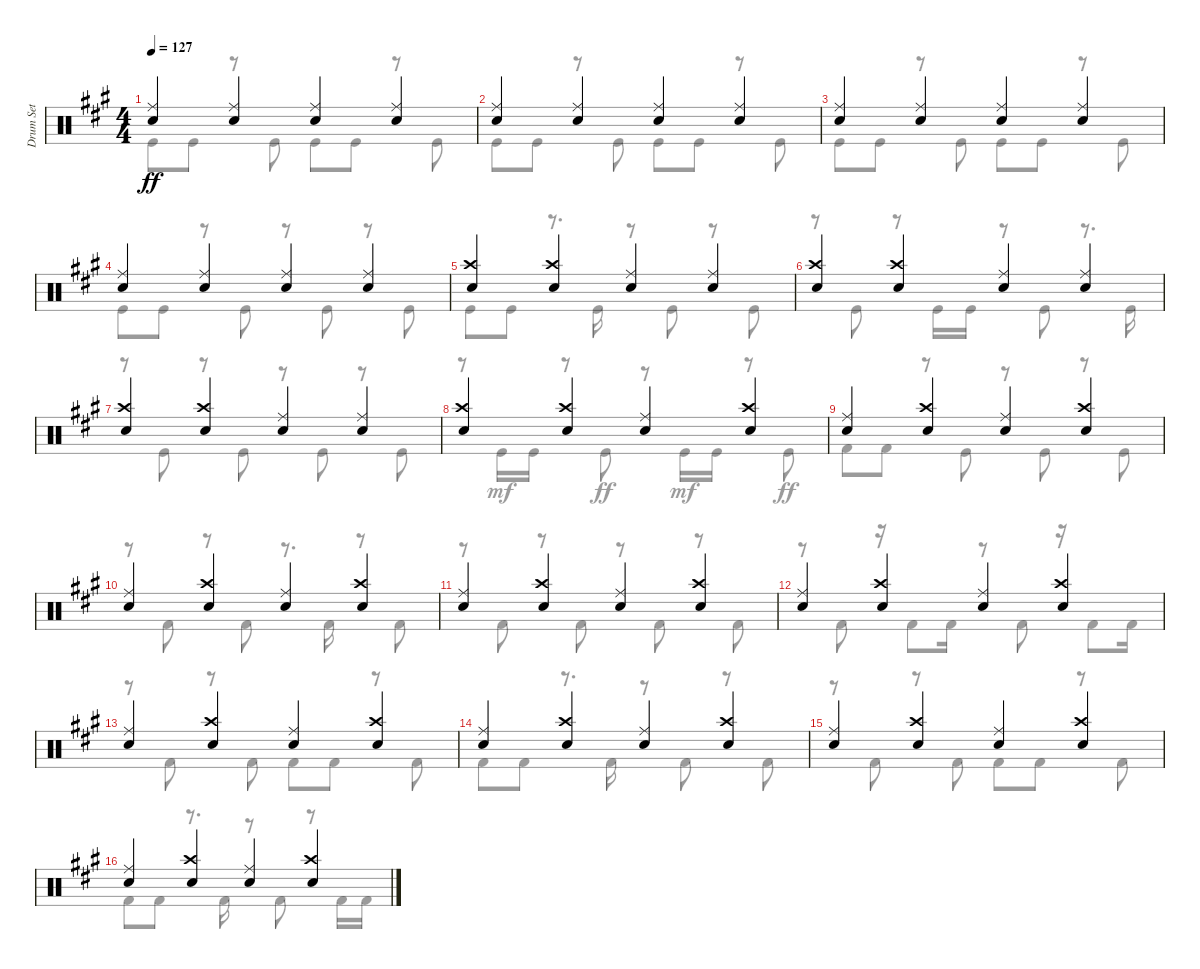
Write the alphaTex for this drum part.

\track ("Drum Set" "Drum Set") {instrument percussion}
\staff {score}
\articulation defaults
\voice
\ts (4 4)
\tempo 127
\clef neutral
\ks a
("Ride (middle)" "Electric Snare (hit)").4{dy ff} ("Ride (middle)" "Electric Snare (hit)").4 ("Ride (middle)" "Electric Snare (hit)").4 ("Ride (middle)" "Electric Snare (hit)").4 |
("Ride (middle)" "Electric Snare (hit)").4 ("Ride (middle)" "Electric Snare (hit)").4 ("Ride (middle)" "Electric Snare (hit)").4 ("Ride (middle)" "Electric Snare (hit)").4 |
("Ride (middle)" "Electric Snare (hit)").4 ("Ride (middle)" "Electric Snare (hit)").4 ("Ride (middle)" "Electric Snare (hit)").4 ("Ride (middle)" "Electric Snare (hit)").4 |
("Ride (middle)" "Electric Snare (hit)").4 ("Ride (middle)" "Electric Snare (hit)").4 ("Ride (middle)" "Electric Snare (hit)").4 ("Ride (middle)" "Electric Snare (hit)").4 |
("Crash high (hit)" "Electric Snare (hit)").4 ("Crash high (hit)" "Electric Snare (hit)").4 ("Ride (middle)" "Electric Snare (hit)").4 ("Ride (middle)" "Electric Snare (hit)").4 |
("Crash high (hit)" "Electric Snare (hit)").4{volume 9} ("Crash high (hit)" "Electric Snare (hit)").4 ("Ride (middle)" "Electric Snare (hit)").4 ("Ride (middle)" "Electric Snare (hit)").4 |
("Crash high (hit)" "Electric Snare (hit)").4 ("Crash high (hit)" "Electric Snare (hit)").4 ("Ride (middle)" "Electric Snare (hit)").4 ("Ride (middle)" "Electric Snare (hit)").4 |
("Crash high (hit)" "Electric Snare (hit)").4 ("Crash high (hit)" "Electric Snare (hit)").4 ("Ride (middle)" "Electric Snare (hit)").4 ("Crash high (hit)" "Electric Snare (hit)").4 |
("Ride (middle)" "Electric Snare (hit)").4 ("Crash high (hit)" "Electric Snare (hit)").4 ("Ride (middle)" "Electric Snare (hit)").4 ("Crash high (hit)" "Electric Snare (hit)").4 |
("Ride (middle)" "Electric Snare (hit)").4{volume 6} ("Crash high (hit)" "Electric Snare (hit)").4 ("Ride (middle)" "Electric Snare (hit)").4 ("Crash high (hit)" "Electric Snare (hit)").4 |
("Ride (middle)" "Electric Snare (hit)").4 ("Crash high (hit)" "Electric Snare (hit)").4 ("Ride (middle)" "Electric Snare (hit)").4 ("Crash high (hit)" "Electric Snare (hit)").4 |
("Ride (middle)" "Electric Snare (hit)").4 ("Crash high (hit)" "Electric Snare (hit)").4 ("Ride (middle)" "Electric Snare (hit)").4 ("Crash high (hit)" "Electric Snare (hit)").4 |
("Ride (middle)" "Electric Snare (hit)").4 ("Crash high (hit)" "Electric Snare (hit)").4 ("Ride (middle)" "Electric Snare (hit)").4 ("Crash high (hit)" "Electric Snare (hit)").4 |
("Ride (middle)" "Electric Snare (hit)").4{volume 3} ("Crash high (hit)" "Electric Snare (hit)").4 ("Ride (middle)" "Electric Snare (hit)").4 ("Crash high (hit)" "Electric Snare (hit)").4 |
("Ride (middle)" "Electric Snare (hit)").4 ("Crash high (hit)" "Electric Snare (hit)").4 ("Ride (middle)" "Electric Snare (hit)").4 ("Crash high (hit)" "Electric Snare (hit)").4 |
("Ride (middle)" "Electric Snare (hit)").4 ("Crash high (hit)" "Electric Snare (hit)").4 ("Ride (middle)" "Electric Snare (hit)").4 ("Crash high (hit)" "Electric Snare (hit)").4
\voice
\clef neutral
\ottava regular
\simile none
\ks a "Kick (hit)".8{dy ff} "Kick (hit)".8
r.8 "Kick (hit)".8 "Kick (hit)".8 "Kick (hit)".8 r.8 "Kick (hit)".8 |
"Kick (hit)".8 "Kick (hit)".8 r.8 "Kick (hit)".8 "Kick (hit)".8 "Kick (hit)".8 r.8 "Kick (hit)".8 |
"Kick (hit)".8 "Kick (hit)".8 r.8 "Kick (hit)".8 "Kick (hit)".8 "Kick (hit)".8 r.8 "Kick (hit)".8 |
"Kick (hit)".8 "Kick (hit)".8 r.8 "Kick (hit)".8 r.8 "Kick (hit)".8 r.8 "Kick (hit)".8 |
"Kick (hit)".8 "Kick (hit)".8 r.8{d} "Kick (hit)".16 r.8 "Kick (hit)".8 r.8 "Kick (hit)".8 |
r.8 "Kick (hit)".8 r.8 "Kick (hit)".16 "Kick (hit)".16 r.8 "Kick (hit)".8 r.8{d} "Kick (hit)".16 |
r.8 "Kick (hit)".8 r.8 "Kick (hit)".8 r.8 "Kick (hit)".8 r.8 "Kick (hit)".8 |
r.8 "Kick (hit)".16{dy mf} "Kick (hit)".16 r.8 "Kick (hit)".8{dy ff} r.8 "Kick (hit)".16{dy mf} "Kick (hit)".16 r.8 "Kick (hit)".8{dy ff} |
"Kick (hit) 2".8 "Kick (hit) 2".8 r.8 "Kick (hit)".8 r.8 "Kick (hit)".8 r.8 "Kick (hit)".8 |
r.8 "Kick (hit) 2".8 r.8 "Kick (hit) 2".8 r.8{d} "Kick (hit) 2".16 r.8 "Kick (hit) 2".8 |
r.8 "Kick (hit) 2".8 r.8 "Kick (hit) 2".8 r.8 "Kick (hit) 2".8 r.8 "Kick (hit) 2".8 |
r.8 "Kick (hit) 2".8 r.16 "Kick (hit) 2".8 "Kick (hit) 2".16 r.8 "Kick (hit) 2".8 r.16 "Kick (hit) 2".8 "Kick (hit) 2".16 |
r.8 "Kick (hit) 2".8 r.8 "Kick (hit) 2".8 "Kick (hit) 2".8 "Kick (hit) 2".8 r.8 "Kick (hit) 2".8 |
"Kick (hit) 2".8 "Kick (hit) 2".8 r.8{d} "Kick (hit) 2".16 r.8 "Kick (hit) 2".8 r.8 "Kick (hit) 2".8 |
r.8 "Kick (hit) 2".8 r.8 "Kick (hit) 2".8 "Kick (hit) 2".8 "Kick (hit) 2".8 r.8 "Kick (hit) 2".8 |
"Kick (hit) 2".8 "Kick (hit) 2".8 r.8{d} "Kick (hit) 2".16 r.8 "Kick (hit) 2".8 r.8 "Kick (hit) 2".16 "Kick (hit) 2".16
